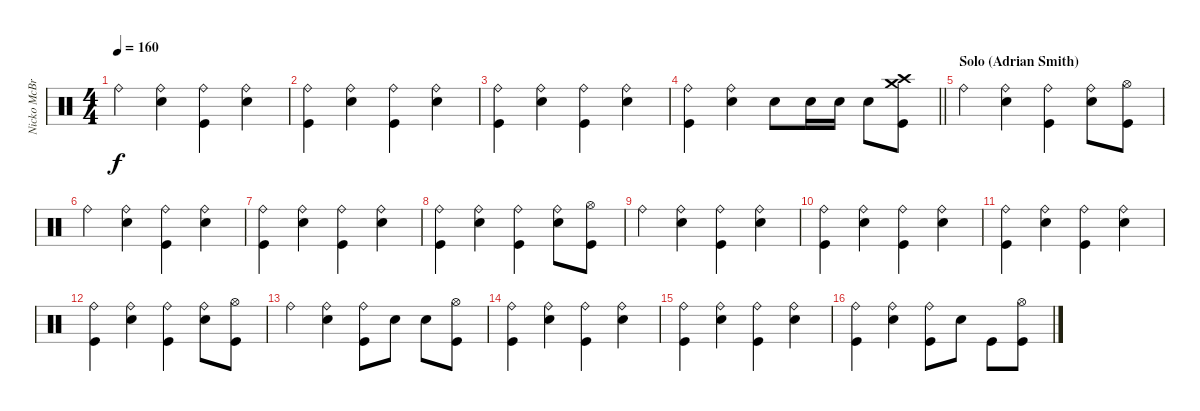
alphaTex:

\track ("Nicko McBrain" "Nicko McBr") {instrument percussion}
\staff {score}
\articulation defaults
\ts (4 4)
\tempo 160
\clef neutral
\ks c "Ride (bell)".4{dy f}
("Ride (bell)" "Snare (hit) 2").4 ("Ride (bell)" "Kick (hit)").4 ("Ride (bell)" "Snare (hit) 2").4 |
("Ride (bell)" "Kick (hit)").4 ("Ride (bell)" "Snare (hit) 2").4 ("Ride (bell)" "Kick (hit)").4 ("Ride (bell)" "Snare (hit) 2").4 |
("Ride (bell)" "Kick (hit)").4 ("Ride (bell)" "Snare (hit) 2").4 ("Ride (bell)" "Kick (hit)").4 ("Ride (bell)" "Snare (hit) 2").4 |
\barLineRight lightlight
("Ride (bell)" "Kick (hit)").4 ("Ride (bell)" "Snare (hit) 2").4 "Snare (hit) 2".8 "Snare (hit) 2".16 "Snare (hit) 2".16 "Snare (hit) 2".8 ("Crash medium (hit)" "Crash high (hit)" "Kick (hit)").8 |
\section ("" "Solo (Adrian Smith)")
"Ride (bell)".4 ("Ride (bell)" "Snare (hit) 2").4 ("Ride (bell)" "Kick (hit)").4 ("Ride (bell)" "Snare (hit) 2").8 ("Hi-Hat (open)" "Kick (hit)").8 |
"Ride (bell)".4 ("Ride (bell)" "Snare (hit) 2").4 ("Ride (bell)" "Kick (hit)").4 ("Ride (bell)" "Snare (hit) 2").4 |
("Ride (bell)" "Kick (hit)").4 ("Ride (bell)" "Snare (hit) 2").4 ("Ride (bell)" "Kick (hit)").4 ("Ride (bell)" "Snare (hit) 2").4 |
("Ride (bell)" "Kick (hit)").4 ("Ride (bell)" "Snare (hit) 2").4 ("Ride (bell)" "Kick (hit)").4 ("Ride (bell)" "Snare (hit) 2").8 ("Hi-Hat (open)" "Kick (hit)").8 |
"Ride (bell)".4 ("Ride (bell)" "Snare (hit) 2").4 ("Ride (bell)" "Kick (hit)").4 ("Ride (bell)" "Snare (hit) 2").4 |
("Ride (bell)" "Kick (hit)").4 ("Ride (bell)" "Snare (hit) 2").4 ("Ride (bell)" "Kick (hit)").4 ("Ride (bell)" "Snare (hit) 2").4 |
("Ride (bell)" "Kick (hit)").4 ("Ride (bell)" "Snare (hit) 2").4 ("Ride (bell)" "Kick (hit)").4 ("Ride (bell)" "Snare (hit) 2").4 |
("Ride (bell)" "Kick (hit)").4 ("Ride (bell)" "Snare (hit) 2").4 ("Ride (bell)" "Kick (hit)").4 ("Ride (bell)" "Snare (hit) 2").8 ("Hi-Hat (open)" "Kick (hit)").8 |
"Ride (bell)".4 ("Ride (bell)" "Snare (hit) 2").4 ("Ride (bell)" "Kick (hit)").8 "Snare (hit) 2".8 "Snare (hit) 2".8 ("Hi-Hat (open)" "Kick (hit)").8 |
("Ride (bell)" "Kick (hit)").4 ("Ride (bell)" "Snare (hit) 2").4 ("Ride (bell)" "Kick (hit)").4 ("Ride (bell)" "Snare (hit) 2").4 |
("Ride (bell)" "Kick (hit)").4 ("Ride (bell)" "Snare (hit) 2").4 ("Ride (bell)" "Kick (hit)").4 ("Ride (bell)" "Snare (hit) 2").4 |
("Ride (bell)" "Kick (hit)").4 ("Ride (bell)" "Snare (hit) 2").4 ("Ride (bell)" "Kick (hit)").8 "Snare (hit) 2".8 "Kick (hit)".8 ("Hi-Hat (open)" "Kick (hit)").8
